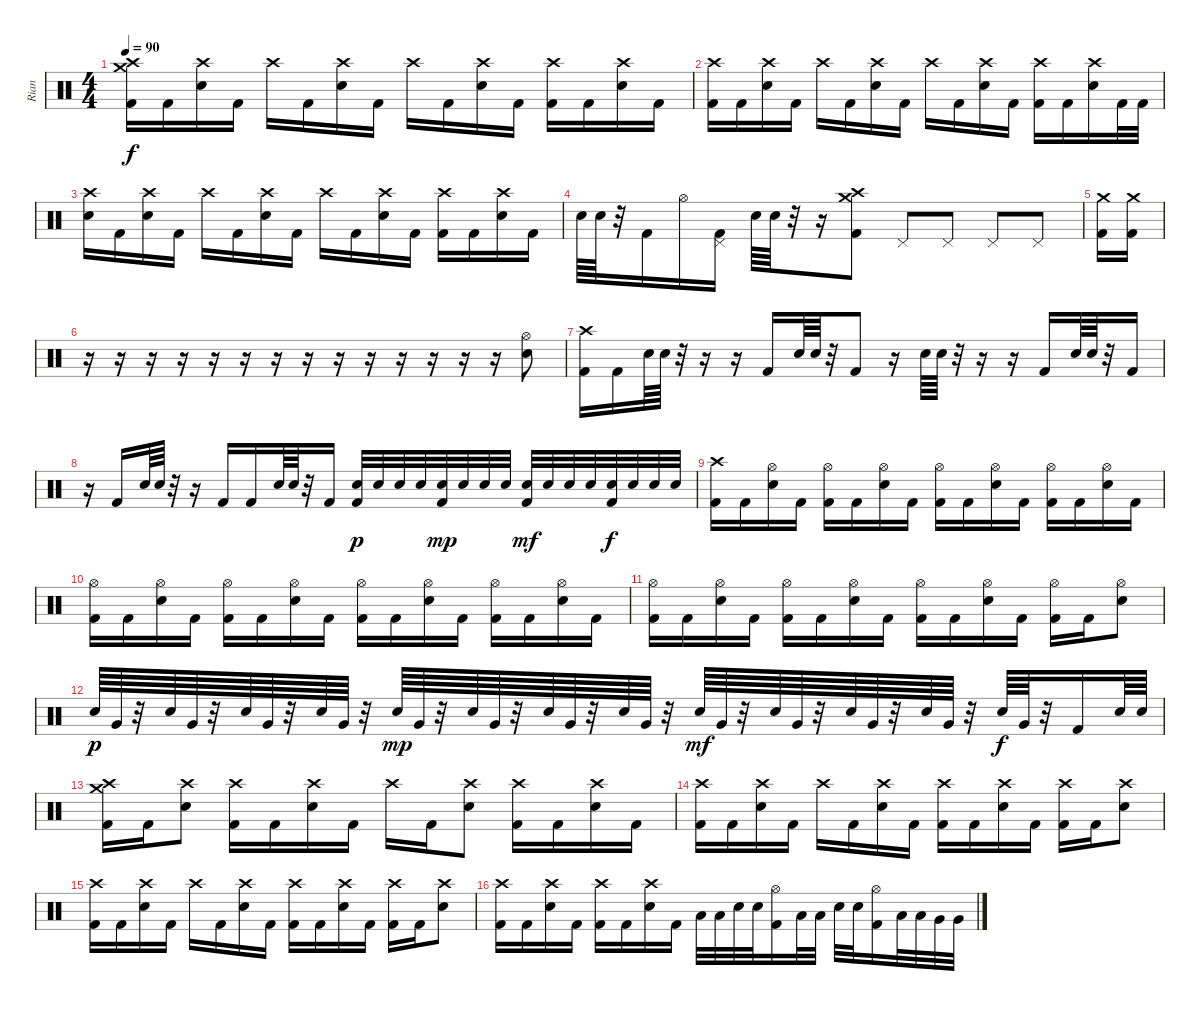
\track ("Rian" "Rian") {instrument percussion bank 34}
\staff {score}
\articulation defaults
\ts (4 4)
\tempo 90
\clef neutral
\ks c
("Crash medium (hit)" "Crash high (hit)" "Kick (hit) 2").16{dy f} "Kick (hit) 2".16 ("Crash high (hit)" "Electric Snare (hit)").16 "Kick (hit) 2".16 "Crash high (hit)".16 "Kick (hit) 2".16 ("Crash high (hit)" "Electric Snare (hit)").16 "Kick (hit) 2".16 "Crash high (hit)".16 "Kick (hit) 2".16 ("Crash high (hit)" "Electric Snare (hit)").16 "Kick (hit) 2".16 ("Crash high (hit)" "Kick (hit) 2").16 "Kick (hit) 2".16 ("Crash high (hit)" "Electric Snare (hit)").16 "Kick (hit) 2".16 |
("Crash high (hit)" "Kick (hit) 2").16 "Kick (hit) 2".16 ("Crash high (hit)" "Electric Snare (hit)").16 "Kick (hit) 2".16 "Crash high (hit)".16 "Kick (hit) 2".16 ("Crash high (hit)" "Electric Snare (hit)").16 "Kick (hit) 2".16 "Crash high (hit)".16 "Kick (hit) 2".16 ("Crash high (hit)" "Electric Snare (hit)").16 "Kick (hit) 2".16 ("Crash high (hit)" "Kick (hit) 2").16 "Kick (hit) 2".16 ("Crash high (hit)" "Electric Snare (hit)").16 "Kick (hit) 2".32 "Kick (hit) 2".32 |
("Crash high (hit)" "Electric Snare (hit)").16 "Kick (hit) 2".16 ("Crash high (hit)" "Electric Snare (hit)").16 "Kick (hit) 2".16 "Crash high (hit)".16 "Kick (hit) 2".16 ("Crash high (hit)" "Electric Snare (hit)").16 "Kick (hit) 2".16 "Crash high (hit)".16 "Kick (hit) 2".16 ("Crash high (hit)" "Electric Snare (hit)").16 "Kick (hit) 2".16 ("Crash high (hit)" "Kick (hit) 2").16 "Kick (hit) 2".16 ("Crash high (hit)" "Electric Snare (hit)").16 "Kick (hit) 2".16 |
"Electric Snare (hit)".64 "Electric Snare (hit)".64 r.32 "Kick (hit) 2".16 "Hi-Hat (open)".16 ("Pedal Hi-Hat (hit)" "Kick (hit) 2").16 "Electric Snare (hit)".64 "Electric Snare (hit)".64 r.32 r.16 ("Crash medium (hit)" "Crash high (hit)" "Kick (hit) 2").8 "Pedal Hi-Hat (hit)".8 "Pedal Hi-Hat (hit)".8 "Pedal Hi-Hat (hit)".8 "Pedal Hi-Hat (hit)".8 |
("Crash medium (hit)" "Kick (hit) 2").16 ("Crash medium (hit)" "Kick (hit) 2").16 |
r.16 r.16 r.16 r.16 r.16 r.16 r.16 r.16 r.16 r.16 r.16 r.16 r.16 r.16 ("Hi-Hat (open)" "Electric Snare (hit)").8 |
("Crash high (hit)" "Kick (hit) 2").16 "Kick (hit) 2".16 "Electric Snare (hit)".64 "Electric Snare (hit)".64 r.32 r.16 r.16 "Kick (hit) 2".16 "Electric Snare (hit)".64 "Electric Snare (hit)".64 r.32 "Kick (hit) 2".8 r.16 "Electric Snare (hit)".64 "Electric Snare (hit)".64 r.32 r.16 r.16 "Kick (hit) 2".16 "Electric Snare (hit)".64 "Electric Snare (hit)".64 r.32 "Kick (hit) 2".16 |
r.16 "Kick (hit) 2".16 "Electric Snare (hit)".64 "Electric Snare (hit)".64 r.32 r.16 "Kick (hit) 2".16 "Kick (hit) 2".16 "Electric Snare (hit)".64 "Electric Snare (hit)".64 r.32 "Kick (hit) 2".16 ("Electric Snare (hit)" "Kick (hit) 2").32{dy p} "Electric Snare (hit)".32 "Electric Snare (hit)".32 "Electric Snare (hit)".32 ("Electric Snare (hit)" "Kick (hit) 2").32{dy mp} "Electric Snare (hit)".32 "Electric Snare (hit)".32 "Electric Snare (hit)".32 ("Electric Snare (hit)" "Kick (hit) 2").32{dy mf} "Electric Snare (hit)".32 "Electric Snare (hit)".32 "Electric Snare (hit)".32 ("Electric Snare (hit)" "Kick (hit) 2").32{dy f} "Electric Snare (hit)".32 "Electric Snare (hit)".32 "Electric Snare (hit)".32 |
("Crash high (hit)" "Kick (hit) 2").16 "Kick (hit) 2".16 ("Hi-Hat (open)" "Electric Snare (hit)").16 "Kick (hit) 2".16 ("Hi-Hat (open)" "Kick (hit) 2").16 "Kick (hit) 2".16 ("Hi-Hat (open)" "Electric Snare (hit)").16 "Kick (hit) 2".16 ("Hi-Hat (open)" "Kick (hit) 2").16 "Kick (hit) 2".16 ("Hi-Hat (open)" "Electric Snare (hit)").16 "Kick (hit) 2".16 ("Hi-Hat (open)" "Kick (hit) 2").16 "Kick (hit) 2".16 ("Hi-Hat (open)" "Electric Snare (hit)").16 "Kick (hit) 2".16 |
("Hi-Hat (open)" "Kick (hit) 2").16 "Kick (hit) 2".16 ("Hi-Hat (open)" "Electric Snare (hit)").16 "Kick (hit) 2".16 ("Hi-Hat (open)" "Kick (hit) 2").16 "Kick (hit) 2".16 ("Hi-Hat (open)" "Electric Snare (hit)").16 "Kick (hit) 2".16 ("Hi-Hat (open)" "Kick (hit) 2").16 "Kick (hit) 2".16 ("Hi-Hat (open)" "Electric Snare (hit)").16 "Kick (hit) 2".16 ("Hi-Hat (open)" "Kick (hit) 2").16 "Kick (hit) 2".16 ("Hi-Hat (open)" "Electric Snare (hit)").16 "Kick (hit) 2".16 |
("Hi-Hat (open)" "Kick (hit) 2").16 "Kick (hit) 2".16 ("Hi-Hat (open)" "Electric Snare (hit)").16 "Kick (hit) 2".16 ("Hi-Hat (open)" "Kick (hit) 2").16 "Kick (hit) 2".16 ("Hi-Hat (open)" "Electric Snare (hit)").16 "Kick (hit) 2".16 ("Hi-Hat (open)" "Kick (hit) 2").16 "Kick (hit) 2".16 ("Hi-Hat (open)" "Electric Snare (hit)").16 "Kick (hit) 2".16 ("Hi-Hat (open)" "Kick (hit) 2").16 "Kick (hit) 2".16 ("Hi-Hat (open)" "Electric Snare (hit)").8 |
"Electric Snare (hit)".64{dy p} "Very Low Tom (hit)".64 r.32 "Electric Snare (hit)".64 "Very Low Tom (hit)".64 r.32 "Electric Snare (hit)".64 "Very Low Tom (hit)".64 r.32 "Electric Snare (hit)".64 "Very Low Tom (hit)".64 r.32 "Electric Snare (hit)".64{dy mp} "Very Low Tom (hit)".64 r.32 "Electric Snare (hit)".64 "Very Low Tom (hit)".64 r.32 "Electric Snare (hit)".64 "Very Low Tom (hit)".64 r.32 "Electric Snare (hit)".64 "Very Low Tom (hit)".64 r.32 "Electric Snare (hit)".64{dy mf} "Very Low Tom (hit)".64 r.32 "Electric Snare (hit)".64 "Very Low Tom (hit)".64 r.32 "Electric Snare (hit)".64 "Very Low Tom (hit)".64 r.32 "Electric Snare (hit)".64 "Very Low Tom (hit)".64 r.32 "Electric Snare (hit)".64{dy f} "Very Low Tom (hit)".64 r.32 "Kick (hit) 2".16 "Electric Snare (hit)".64 "Electric Snare (hit)".64 |
("Crash medium (hit)" "Crash high (hit)" "Kick (hit) 2").16 "Kick (hit) 2".16 ("Crash high (hit)" "Electric Snare (hit)").8 ("Crash high (hit)" "Kick (hit) 2").16 "Kick (hit) 2".16 ("Crash high (hit)" "Electric Snare (hit)").16 "Kick (hit) 2".16 "Crash high (hit)".16 "Kick (hit) 2".16 ("Crash high (hit)" "Electric Snare (hit)").8 ("Crash high (hit)" "Kick (hit) 2").16 "Kick (hit) 2".16 ("Crash high (hit)" "Electric Snare (hit)").16 "Kick (hit) 2".16 |
("Crash high (hit)" "Kick (hit) 2").16 "Kick (hit) 2".16 ("Crash high (hit)" "Electric Snare (hit)").16 "Kick (hit) 2".16 "Crash high (hit)".16 "Kick (hit) 2".16 ("Crash high (hit)" "Electric Snare (hit)").16 "Kick (hit) 2".16 ("Crash high (hit)" "Kick (hit) 2").16 "Kick (hit) 2".16 ("Crash high (hit)" "Electric Snare (hit)").16 "Kick (hit) 2".16 ("Crash high (hit)" "Kick (hit) 2").16 "Kick (hit) 2".16 ("Crash high (hit)" "Electric Snare (hit)").8 |
("Crash high (hit)" "Kick (hit) 2").16 "Kick (hit) 2".16 ("Crash high (hit)" "Electric Snare (hit)").16 "Kick (hit) 2".16 "Crash high (hit)".16 "Kick (hit) 2".16 ("Crash high (hit)" "Electric Snare (hit)").16 "Kick (hit) 2".16 ("Crash high (hit)" "Kick (hit) 2").16 "Kick (hit) 2".16 ("Crash high (hit)" "Electric Snare (hit)").16 "Kick (hit) 2".16 ("Crash high (hit)" "Kick (hit) 2").16 "Kick (hit) 2".16 ("Crash high (hit)" "Electric Snare (hit)").8 |
("Crash high (hit)" "Kick (hit) 2").16 "Kick (hit) 2".16 ("Crash high (hit)" "Electric Snare (hit)").16 "Kick (hit) 2".16 ("Crash high (hit)" "Kick (hit) 2").16 "Kick (hit) 2".16 ("Crash high (hit)" "Electric Snare (hit)").16 "Kick (hit) 2".16 "Low Tom (hit)".32 "Low Tom (hit)".32 "Electric Snare (hit)".32 "Electric Snare (hit)".32 ("Hi-Hat (open)" "Kick (hit) 2").16 "Low Tom (hit)".32 "Low Tom (hit)".32 "Electric Snare (hit)".32 "Electric Snare (hit)".32 ("Hi-Hat (open)" "Kick (hit) 2").16 "Low Tom (hit)".32 "Low Tom (hit)".32 "Very Low Tom (hit)".32 "Very Low Tom (hit)".32
